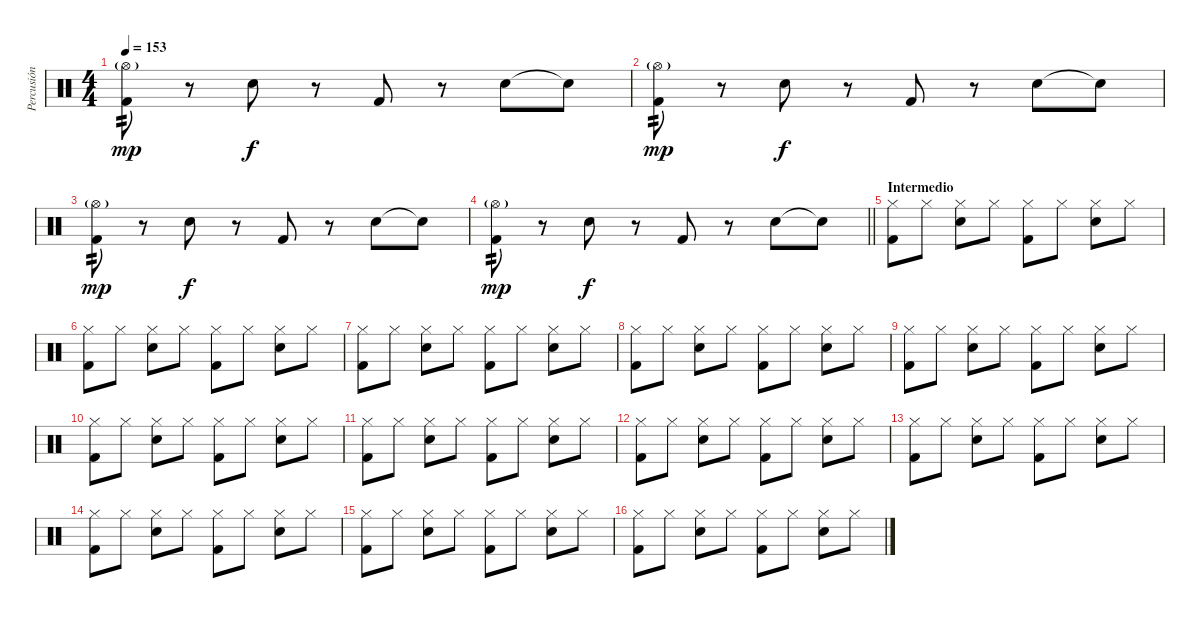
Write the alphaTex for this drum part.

\track ("Percusión" "Percusión") {instrument percussion}
\staff {score}
\articulation defaults
\ts (4 4)
\tempo 153
\clef neutral
\ks c
("Hi-Hat (open)"{g} "Kick (hit) 2").8{tp 2 dy mp} r.8 "Snare (hit) 2".8{dy f} r.8 "Kick (hit) 2".8 r.8 "Snare (hit) 2".8 "Snare (hit)"{t}.8 |
("Hi-Hat (open)"{g} "Kick (hit) 2").8{tp 2 dy mp} r.8 "Snare (hit) 2".8{dy f} r.8 "Kick (hit) 2".8 r.8 "Snare (hit) 2".8 "Snare (hit)"{t}.8 |
("Hi-Hat (open)"{g} "Kick (hit) 2").8{tp 2 dy mp} r.8 "Snare (hit) 2".8{dy f} r.8 "Kick (hit) 2".8 r.8 "Snare (hit) 2".8 "Snare (hit)"{t}.8 |
\barLineRight lightlight
("Hi-Hat (open)"{g} "Kick (hit) 2").8{tp 2 dy mp} r.8 "Snare (hit) 2".8{dy f} r.8 "Kick (hit) 2".8 r.8 "Snare (hit) 2".8 "Snare (hit)"{t}.8 |
\section ("" "Intermedio")
("Hi-Hat (closed)" "Kick (hit) 2").8 "Hi-Hat (closed)".8 ("Hi-Hat (closed)" "Snare (hit) 2").8 "Hi-Hat (closed)".8 ("Hi-Hat (closed)" "Kick (hit) 2").8 "Hi-Hat (closed)".8 ("Hi-Hat (closed)" "Snare (hit) 2").8 "Hi-Hat (closed)".8 |
("Hi-Hat (closed)" "Kick (hit) 2").8 "Hi-Hat (closed)".8 ("Hi-Hat (closed)" "Snare (hit) 2").8 "Hi-Hat (closed)".8 ("Hi-Hat (closed)" "Kick (hit) 2").8 "Hi-Hat (closed)".8 ("Hi-Hat (closed)" "Snare (hit) 2").8 "Hi-Hat (closed)".8 |
("Hi-Hat (closed)" "Kick (hit) 2").8 "Hi-Hat (closed)".8 ("Hi-Hat (closed)" "Snare (hit) 2").8 "Hi-Hat (closed)".8 ("Hi-Hat (closed)" "Kick (hit) 2").8 "Hi-Hat (closed)".8 ("Hi-Hat (closed)" "Snare (hit) 2").8 "Hi-Hat (closed)".8 |
("Hi-Hat (closed)" "Kick (hit) 2").8 "Hi-Hat (closed)".8 ("Hi-Hat (closed)" "Snare (hit) 2").8 "Hi-Hat (closed)".8 ("Hi-Hat (closed)" "Kick (hit) 2").8 "Hi-Hat (closed)".8 ("Hi-Hat (closed)" "Snare (hit) 2").8 "Hi-Hat (closed)".8 |
("Hi-Hat (closed)" "Kick (hit) 2").8 "Hi-Hat (closed)".8 ("Hi-Hat (closed)" "Snare (hit) 2").8 "Hi-Hat (closed)".8 ("Hi-Hat (closed)" "Kick (hit) 2").8 "Hi-Hat (closed)".8 ("Hi-Hat (closed)" "Snare (hit) 2").8 "Hi-Hat (closed)".8 |
("Hi-Hat (closed)" "Kick (hit) 2").8 "Hi-Hat (closed)".8 ("Hi-Hat (closed)" "Snare (hit) 2").8 "Hi-Hat (closed)".8 ("Hi-Hat (closed)" "Kick (hit) 2").8 "Hi-Hat (closed)".8 ("Hi-Hat (closed)" "Snare (hit) 2").8 "Hi-Hat (closed)".8 |
("Hi-Hat (closed)" "Kick (hit) 2").8 "Hi-Hat (closed)".8 ("Hi-Hat (closed)" "Snare (hit) 2").8 "Hi-Hat (closed)".8 ("Hi-Hat (closed)" "Kick (hit) 2").8 "Hi-Hat (closed)".8 ("Hi-Hat (closed)" "Snare (hit) 2").8 "Hi-Hat (closed)".8 |
("Hi-Hat (closed)" "Kick (hit) 2").8 "Hi-Hat (closed)".8 ("Hi-Hat (closed)" "Snare (hit) 2").8 "Hi-Hat (closed)".8 ("Hi-Hat (closed)" "Kick (hit) 2").8 "Hi-Hat (closed)".8 ("Hi-Hat (closed)" "Snare (hit) 2").8 "Hi-Hat (closed)".8 |
("Hi-Hat (closed)" "Kick (hit) 2").8 "Hi-Hat (closed)".8 ("Hi-Hat (closed)" "Snare (hit) 2").8 "Hi-Hat (closed)".8 ("Hi-Hat (closed)" "Kick (hit) 2").8 "Hi-Hat (closed)".8 ("Hi-Hat (closed)" "Snare (hit) 2").8 "Hi-Hat (closed)".8 |
("Hi-Hat (closed)" "Kick (hit) 2").8 "Hi-Hat (closed)".8 ("Hi-Hat (closed)" "Snare (hit) 2").8 "Hi-Hat (closed)".8 ("Hi-Hat (closed)" "Kick (hit) 2").8 "Hi-Hat (closed)".8 ("Hi-Hat (closed)" "Snare (hit) 2").8 "Hi-Hat (closed)".8 |
("Hi-Hat (closed)" "Kick (hit) 2").8 "Hi-Hat (closed)".8 ("Hi-Hat (closed)" "Snare (hit) 2").8 "Hi-Hat (closed)".8 ("Hi-Hat (closed)" "Kick (hit) 2").8 "Hi-Hat (closed)".8 ("Hi-Hat (closed)" "Snare (hit) 2").8 "Hi-Hat (closed)".8 |
("Hi-Hat (closed)" "Kick (hit) 2").8 "Hi-Hat (closed)".8 ("Hi-Hat (closed)" "Snare (hit) 2").8 "Hi-Hat (closed)".8 ("Hi-Hat (closed)" "Kick (hit) 2").8 "Hi-Hat (closed)".8 ("Hi-Hat (closed)" "Snare (hit) 2").8 "Hi-Hat (closed)".8
